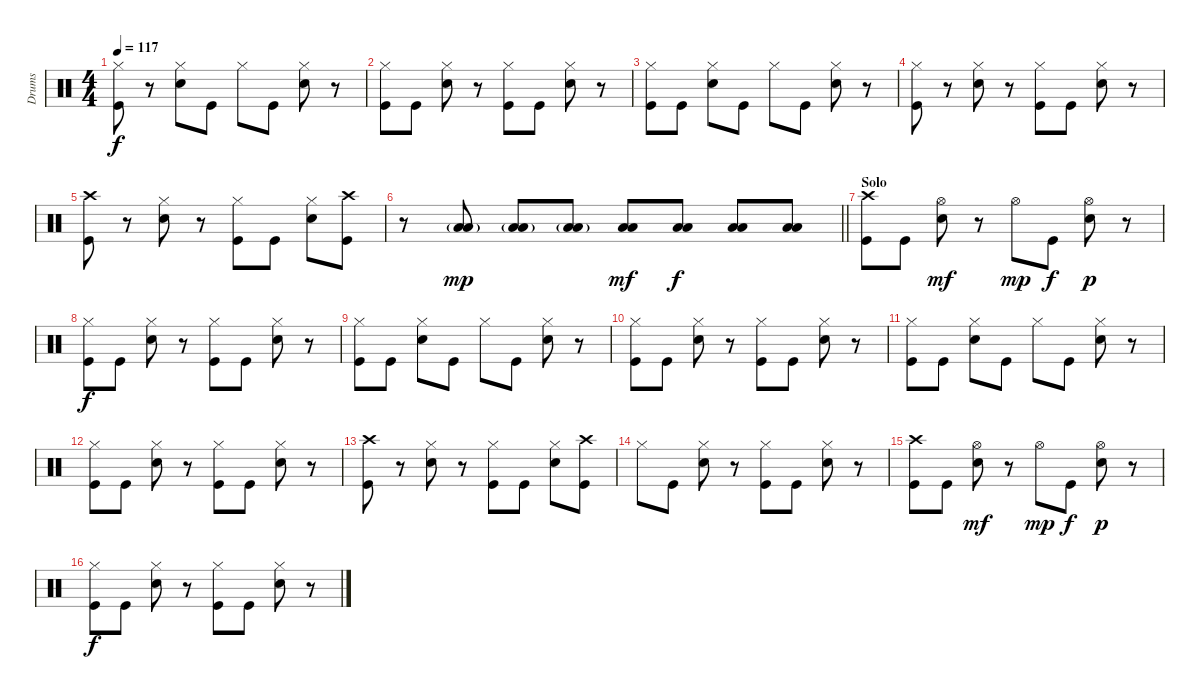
\track ("Drums" "Drums") {instrument percussion}
\staff {score}
\articulation defaults
\ts (4 4)
\tempo 117
\clef neutral
\ks c
("Hi-Hat (closed)" "Kick (hit)").8{dy f} r.8 ("Hi-Hat (closed)" "Snare (hit) 2").8 "Kick (hit)".8 "Hi-Hat (closed)".8 "Kick (hit)".8 ("Hi-Hat (closed)" "Snare (hit) 2").8 r.8 |
("Hi-Hat (closed)" "Kick (hit)").8 "Kick (hit)".8 ("Hi-Hat (closed)" "Snare (hit) 2").8 r.8 ("Hi-Hat (closed)" "Kick (hit)").8 "Kick (hit)".8 ("Hi-Hat (closed)" "Snare (hit) 2").8 r.8 |
("Hi-Hat (closed)" "Kick (hit)").8 "Kick (hit)".8 ("Hi-Hat (closed)" "Snare (hit) 2").8 "Kick (hit)".8 "Hi-Hat (closed)".8 "Kick (hit)".8 ("Hi-Hat (closed)" "Snare (hit) 2").8 r.8 |
("Hi-Hat (closed)" "Kick (hit)").8 r.8 ("Hi-Hat (closed)" "Snare (hit) 2").8 r.8 ("Hi-Hat (closed)" "Kick (hit)").8 "Kick (hit)".8 ("Hi-Hat (closed)" "Snare (hit) 2").8 r.8 |
("Crash high (hit)" "Kick (hit)").8 r.8 ("Hi-Hat (closed)" "Snare (hit) 2").8 r.8 ("Hi-Hat (closed)" "Kick (hit)").8 "Kick (hit)".8 ("Hi-Hat (closed)" "Snare (hit) 2").8 ("Crash high (hit)" "Kick (hit)").8 |
\barLineRight lightlight
r.8 ("Low Floor Tom (hit)"{g} "Low Tom (hit)"{g}).8{dy mp} ("Low Floor Tom (hit)"{g} "Low Tom (hit)"{g}).8 ("Low Floor Tom (hit)"{g} "Low Tom (hit)"{g}).8 ("Low Floor Tom (hit)" "Low Tom (hit)").8{dy mf} ("Low Floor Tom (hit)" "Low Tom (hit)").8{dy f} ("Low Floor Tom (hit)" "Low Tom (hit)").8 ("Low Floor Tom (hit)" "Low Tom (hit)").8 |
\section ("" "Solo")
("Crash high (hit)" "Kick (hit)").8 "Kick (hit)".8 ("Hi-Hat (open)" "Snare (hit) 2").8{dy mf} r.8 "Hi-Hat (open)".8{dy mp} "Kick (hit)".8{dy f} ("Hi-Hat (open)" "Snare (hit) 2").8{dy p} r.8 |
("Hi-Hat (closed)" "Kick (hit)").8{dy f} "Kick (hit)".8 ("Hi-Hat (closed)" "Snare (hit) 2").8 r.8 ("Hi-Hat (closed)" "Kick (hit)").8 "Kick (hit)".8 ("Hi-Hat (closed)" "Snare (hit) 2").8 r.8 |
("Hi-Hat (closed)" "Kick (hit)").8 "Kick (hit)".8 ("Hi-Hat (closed)" "Snare (hit) 2").8 "Kick (hit)".8 "Hi-Hat (closed)".8 "Kick (hit)".8 ("Hi-Hat (closed)" "Snare (hit) 2").8 r.8 |
("Hi-Hat (closed)" "Kick (hit)").8 "Kick (hit)".8 ("Hi-Hat (closed)" "Snare (hit) 2").8 r.8 ("Hi-Hat (closed)" "Kick (hit)").8 "Kick (hit)".8 ("Hi-Hat (closed)" "Snare (hit) 2").8 r.8 |
("Hi-Hat (closed)" "Kick (hit)").8 "Kick (hit)".8 ("Hi-Hat (closed)" "Snare (hit) 2").8 "Kick (hit)".8 "Hi-Hat (closed)".8 "Kick (hit)".8 ("Hi-Hat (closed)" "Snare (hit) 2").8 r.8 |
("Hi-Hat (closed)" "Kick (hit)").8 "Kick (hit)".8 ("Hi-Hat (closed)" "Snare (hit) 2").8 r.8 ("Hi-Hat (closed)" "Kick (hit)").8 "Kick (hit)".8 ("Hi-Hat (closed)" "Snare (hit) 2").8 r.8 |
("Crash high (hit)" "Kick (hit)").8 r.8 ("Hi-Hat (closed)" "Snare (hit) 2").8 r.8 ("Hi-Hat (closed)" "Kick (hit)").8 "Kick (hit)".8 ("Hi-Hat (closed)" "Snare (hit) 2").8 ("Crash high (hit)" "Kick (hit)").8 |
"Hi-Hat (closed)".8 "Kick (hit)".8 ("Hi-Hat (closed)" "Snare (hit) 2").8 r.8 ("Hi-Hat (closed)" "Kick (hit)").8 "Kick (hit)".8 ("Hi-Hat (closed)" "Snare (hit) 2").8 r.8 |
("Crash high (hit)" "Kick (hit)").8 "Kick (hit)".8 ("Hi-Hat (open)" "Snare (hit) 2").8{dy mf} r.8 "Hi-Hat (open)".8{dy mp} "Kick (hit)".8{dy f} ("Hi-Hat (open)" "Snare (hit) 2").8{dy p} r.8 |
("Hi-Hat (closed)" "Kick (hit)").8{dy f} "Kick (hit)".8 ("Hi-Hat (closed)" "Snare (hit) 2").8 r.8 ("Hi-Hat (closed)" "Kick (hit)").8 "Kick (hit)".8 ("Hi-Hat (closed)" "Snare (hit) 2").8 r.8
